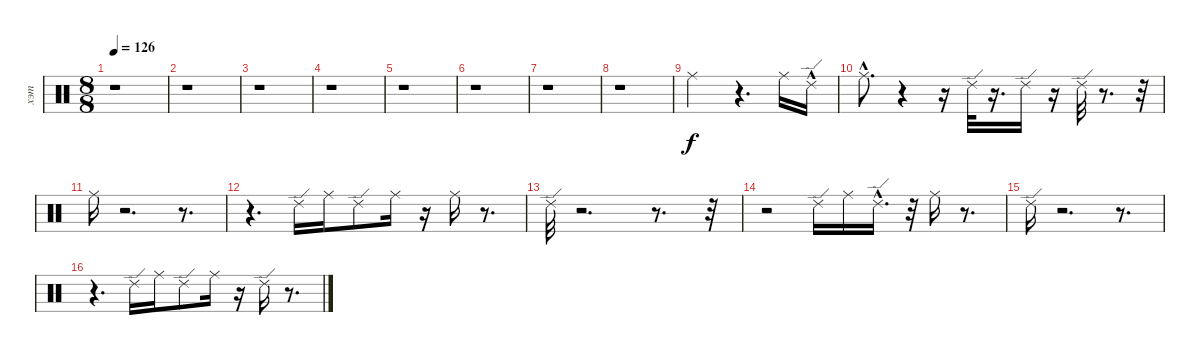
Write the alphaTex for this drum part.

\track ("хэт" "хэт") {instrument percussion}
\staff {score}
\articulation defaults
\ts (8 8)
\tempo 126
\clef neutral
\ks c
r.1{dy f} |
r.1 |
r.1 |
r.1 |
r.1 |
r.1 |
r.1 |
r.1 |
"Ride (middle)".2 r.4{d} "Ride (middle)".16 "Ride (edge) 2"{hac}.16 |
"Ride (middle)"{hac}.8{d} r.4 r.16 "Ride (edge) 2".32 r.16{d} "Ride (edge) 2".16 r.16 "Ride (edge) 2".32 r.8{d} r.32 |
"Ride (middle)".16 r.2{d} r.8{d} |
r.4{d} "Ride (edge) 2".16 "Ride (middle)".16 "Ride (edge) 2".8 "Ride (middle)".16 r.16 "Ride (middle)".16 r.8{d} |
"Ride (edge) 2".32 r.2{d} r.8{d} r.32 |
r.2 "Ride (edge) 2".16 "Ride (middle)".16 "Ride (edge) 2"{hac}.16{d} r.32 "Ride (middle)".16 r.8{d} |
"Ride (edge) 2".16 r.2{d} r.8{d} |
r.4{d} "Ride (edge) 2".16 "Ride (middle)".16 "Ride (edge) 2".8 "Ride (middle)".16 r.16 "Ride (edge) 2".16 r.8{d}
